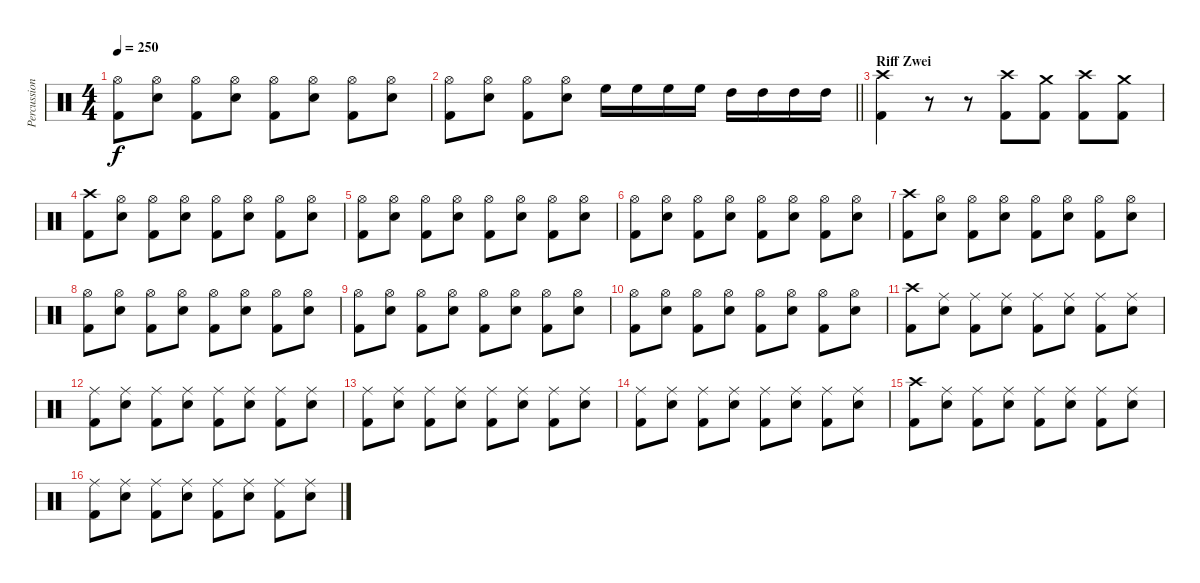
\track ("Percussion" "Percussion") {instrument percussion}
\staff {score}
\articulation defaults
\ts (4 4)
\tempo 250
\clef neutral
\ks c
("Hi-Hat (open)" "Kick (hit) 2").8{dy f} ("Hi-Hat (open)" "Electric Snare (hit)").8 ("Hi-Hat (open)" "Kick (hit) 2").8 ("Hi-Hat (open)" "Electric Snare (hit)").8 ("Hi-Hat (open)" "Kick (hit) 2").8 ("Hi-Hat (open)" "Electric Snare (hit)").8 ("Hi-Hat (open)" "Kick (hit) 2").8 ("Hi-Hat (open)" "Electric Snare (hit)").8 |
\barLineRight lightlight
("Hi-Hat (open)" "Kick (hit) 2").8 ("Hi-Hat (open)" "Electric Snare (hit)").8 ("Hi-Hat (open)" "Kick (hit) 2").8 ("Hi-Hat (open)" "Electric Snare (hit)").8 "High Floor Tom (hit)".16 "High Floor Tom (hit)".16 "High Floor Tom (hit)".16 "High Floor Tom (hit)".16 "High Tom (hit)".16 "High Tom (hit)".16 "High Tom (hit)".16 "High Tom (hit)".16 |
\section ("" "Riff Zwei ")
("Crash high (hit)" "Kick (hit) 2").4 r.8{volume 0} r.8 ("Crash high (hit)" "Kick (hit) 2").8{volume 13} ("Crash medium (hit)" "Kick (hit) 2").8 ("Crash high (hit)" "Kick (hit) 2").8 ("Crash medium (hit)" "Kick (hit) 2").8 |
("Crash high (hit)" "Kick (hit) 2").8 ("Hi-Hat (open)" "Electric Snare (hit)").8 ("Hi-Hat (open)" "Kick (hit) 2").8 ("Hi-Hat (open)" "Electric Snare (hit)").8 ("Hi-Hat (open)" "Kick (hit) 2").8 ("Hi-Hat (open)" "Electric Snare (hit)").8 ("Hi-Hat (open)" "Kick (hit) 2").8 ("Hi-Hat (open)" "Electric Snare (hit)").8 |
("Hi-Hat (open)" "Kick (hit) 2").8 ("Hi-Hat (open)" "Electric Snare (hit)").8 ("Hi-Hat (open)" "Kick (hit) 2").8 ("Hi-Hat (open)" "Electric Snare (hit)").8 ("Hi-Hat (open)" "Kick (hit) 2").8 ("Hi-Hat (open)" "Electric Snare (hit)").8 ("Hi-Hat (open)" "Kick (hit) 2").8 ("Hi-Hat (open)" "Electric Snare (hit)").8 |
("Hi-Hat (open)" "Kick (hit) 2").8 ("Hi-Hat (open)" "Electric Snare (hit)").8 ("Hi-Hat (open)" "Kick (hit) 2").8 ("Hi-Hat (open)" "Electric Snare (hit)").8 ("Hi-Hat (open)" "Kick (hit) 2").8 ("Hi-Hat (open)" "Electric Snare (hit)").8 ("Hi-Hat (open)" "Kick (hit) 2").8 ("Hi-Hat (open)" "Electric Snare (hit)").8 |
("Crash high (hit)" "Kick (hit) 2").8 ("Hi-Hat (open)" "Electric Snare (hit)").8 ("Hi-Hat (open)" "Kick (hit) 2").8 ("Hi-Hat (open)" "Electric Snare (hit)").8 ("Hi-Hat (open)" "Kick (hit) 2").8 ("Hi-Hat (open)" "Electric Snare (hit)").8 ("Hi-Hat (open)" "Kick (hit) 2").8 ("Hi-Hat (open)" "Electric Snare (hit)").8 |
("Hi-Hat (open)" "Kick (hit) 2").8 ("Hi-Hat (open)" "Electric Snare (hit)").8 ("Hi-Hat (open)" "Kick (hit) 2").8 ("Hi-Hat (open)" "Electric Snare (hit)").8 ("Hi-Hat (open)" "Kick (hit) 2").8 ("Hi-Hat (open)" "Electric Snare (hit)").8 ("Hi-Hat (open)" "Kick (hit) 2").8 ("Hi-Hat (open)" "Electric Snare (hit)").8 |
("Hi-Hat (open)" "Kick (hit) 2").8 ("Hi-Hat (open)" "Electric Snare (hit)").8 ("Hi-Hat (open)" "Kick (hit) 2").8 ("Hi-Hat (open)" "Electric Snare (hit)").8 ("Hi-Hat (open)" "Kick (hit) 2").8 ("Hi-Hat (open)" "Electric Snare (hit)").8 ("Hi-Hat (open)" "Kick (hit) 2").8 ("Hi-Hat (open)" "Electric Snare (hit)").8 |
("Hi-Hat (open)" "Kick (hit) 2").8 ("Hi-Hat (open)" "Electric Snare (hit)").8 ("Hi-Hat (open)" "Kick (hit) 2").8 ("Hi-Hat (open)" "Electric Snare (hit)").8 ("Hi-Hat (open)" "Kick (hit) 2").8 ("Hi-Hat (open)" "Electric Snare (hit)").8 ("Hi-Hat (open)" "Kick (hit) 2").8 ("Hi-Hat (open)" "Electric Snare (hit)").8 |
("Crash high (hit)" "Kick (hit) 2").8 ("Ride (middle)" "Electric Snare (hit)").8 ("Ride (middle)" "Kick (hit) 2").8 ("Ride (middle)" "Electric Snare (hit)").8 ("Ride (middle)" "Kick (hit) 2").8 ("Ride (middle)" "Electric Snare (hit)").8 ("Ride (middle)" "Kick (hit) 2").8 ("Ride (middle)" "Electric Snare (hit)").8 |
("Ride (middle)" "Kick (hit) 2").8 ("Ride (middle)" "Electric Snare (hit)").8 ("Ride (middle)" "Kick (hit) 2").8 ("Ride (middle)" "Electric Snare (hit)").8 ("Ride (middle)" "Kick (hit) 2").8 ("Ride (middle)" "Electric Snare (hit)").8 ("Ride (middle)" "Kick (hit) 2").8 ("Ride (middle)" "Electric Snare (hit)").8 |
("Ride (middle)" "Kick (hit) 2").8 ("Ride (middle)" "Electric Snare (hit)").8 ("Ride (middle)" "Kick (hit) 2").8 ("Ride (middle)" "Electric Snare (hit)").8 ("Ride (middle)" "Kick (hit) 2").8 ("Ride (middle)" "Electric Snare (hit)").8 ("Ride (middle)" "Kick (hit) 2").8 ("Ride (middle)" "Electric Snare (hit)").8 |
("Ride (middle)" "Kick (hit) 2").8 ("Ride (middle)" "Electric Snare (hit)").8 ("Ride (middle)" "Kick (hit) 2").8 ("Ride (middle)" "Electric Snare (hit)").8 ("Ride (middle)" "Kick (hit) 2").8 ("Ride (middle)" "Electric Snare (hit)").8 ("Ride (middle)" "Kick (hit) 2").8 ("Ride (middle)" "Electric Snare (hit)").8 |
("Crash high (hit)" "Kick (hit) 2").8 ("Ride (middle)" "Electric Snare (hit)").8 ("Ride (middle)" "Kick (hit) 2").8 ("Ride (middle)" "Electric Snare (hit)").8 ("Ride (middle)" "Kick (hit) 2").8 ("Ride (middle)" "Electric Snare (hit)").8 ("Ride (middle)" "Kick (hit) 2").8 ("Ride (middle)" "Electric Snare (hit)").8 |
("Ride (middle)" "Kick (hit) 2").8 ("Ride (middle)" "Electric Snare (hit)").8 ("Ride (middle)" "Kick (hit) 2").8 ("Ride (middle)" "Electric Snare (hit)").8 ("Ride (middle)" "Kick (hit) 2").8 ("Ride (middle)" "Electric Snare (hit)").8 ("Ride (middle)" "Kick (hit) 2").8 ("Ride (middle)" "Electric Snare (hit)").8
